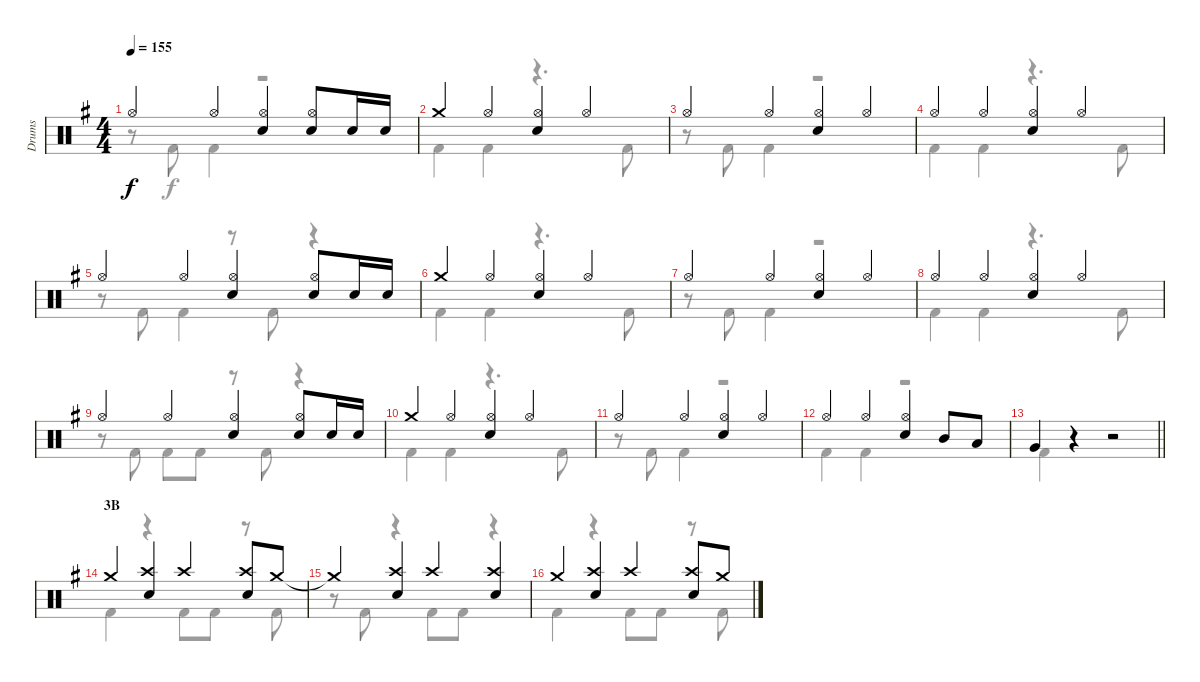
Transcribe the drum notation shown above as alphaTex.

\track ("Drums" "Drums") {instrument percussion}
\staff {score}
\articulation defaults
\voice
\ts (4 4)
\tempo 155
\clef neutral
\ks g "Hi-Hat (open)".4{dy f} "Hi-Hat (open)".4
("Hi-Hat (open)" "Electric Snare (hit)").4 ("Hi-Hat (open)" "Electric Snare (hit)").8 "Electric Snare (hit)".16 "Electric Snare (hit)".16 |
"Crash medium (hit)".4 "Hi-Hat (open)".4 ("Hi-Hat (open)" "Electric Snare (hit)").4 "Hi-Hat (open)".4 |
"Hi-Hat (open)".4 "Hi-Hat (open)".4 ("Hi-Hat (open)" "Electric Snare (hit)").4 "Hi-Hat (open)".4 |
"Hi-Hat (open)".4 "Hi-Hat (open)".4 ("Hi-Hat (open)" "Electric Snare (hit)").4 "Hi-Hat (open)".4 |
"Hi-Hat (open)".4 "Hi-Hat (open)".4 ("Hi-Hat (open)" "Electric Snare (hit)").4 ("Hi-Hat (open)" "Electric Snare (hit)").8 "Electric Snare (hit)".16 "Electric Snare (hit)".16 |
"Crash medium (hit)".4 "Hi-Hat (open)".4 ("Hi-Hat (open)" "Electric Snare (hit)").4 "Hi-Hat (open)".4 |
"Hi-Hat (open)".4 "Hi-Hat (open)".4 ("Hi-Hat (open)" "Electric Snare (hit)").4 "Hi-Hat (open)".4 |
"Hi-Hat (open)".4 "Hi-Hat (open)".4 ("Hi-Hat (open)" "Electric Snare (hit)").4 "Hi-Hat (open)".4 |
"Hi-Hat (open)".4 "Hi-Hat (open)".4 ("Hi-Hat (open)" "Electric Snare (hit)").4 ("Hi-Hat (open)" "Electric Snare (hit)").8 "Electric Snare (hit)".16 "Electric Snare (hit)".16 |
"Crash medium (hit)".4 "Hi-Hat (open)".4 ("Hi-Hat (open)" "Electric Snare (hit)").4 "Hi-Hat (open)".4 |
"Hi-Hat (open)".4 "Hi-Hat (open)".4 ("Hi-Hat (open)" "Electric Snare (hit)").4 "Hi-Hat (open)".4 |
"Hi-Hat (open)".4 "Hi-Hat (open)".4 ("Hi-Hat (open)" "Electric Snare (hit)").4 "Mid Tom (hit)".8 "Low Tom (hit)".8 |
\barLineRight lightlight "Very Low Tom (hit)".4
r.4 r.2 |
\section ("" "3B")
"Crash medium (hit)".4 ("Crash high (hit)" "Electric Snare (hit)").4 "Crash high (hit)".4 ("Crash high (hit)" "Electric Snare (hit)").8 "Crash medium (hit)".8 |
"Crash medium (hit)"{t}.4 ("Crash high (hit)" "Electric Snare (hit)").4 "Crash high (hit)".4 ("Crash high (hit)" "Electric Snare (hit)").4 |
"Crash medium (hit)".4 ("Crash high (hit)" "Electric Snare (hit)").4 "Crash high (hit)".4 ("Crash high (hit)" "Electric Snare (hit)").8 "Crash medium (hit)".8
\voice
\clef neutral
\ottava regular
\simile none
\ks g
r.8{dy f} "Kick (hit) 2".8 "Kick (hit) 2".4 r.2 |
"Kick (hit) 2".4 "Kick (hit) 2".4 r.4{d} "Kick (hit) 2".8 |
r.8 "Kick (hit) 2".8 "Kick (hit) 2".4 r.2 |
"Kick (hit) 2".4 "Kick (hit) 2".4 r.4{d} "Kick (hit) 2".8 |
r.8 "Kick (hit) 2".8 "Kick (hit) 2".4 r.8 "Kick (hit) 2".8 r.4 |
"Kick (hit) 2".4 "Kick (hit) 2".4 r.4{d} "Kick (hit) 2".8 |
r.8 "Kick (hit) 2".8 "Kick (hit) 2".4 r.2 |
"Kick (hit) 2".4 "Kick (hit) 2".4 r.4{d} "Kick (hit) 2".8 |
r.8 "Kick (hit) 2".8 "Kick (hit) 2".8 "Kick (hit) 2".8 r.8 "Kick (hit) 2".8 r.4 |
"Kick (hit) 2".4 "Kick (hit) 2".4 r.4{d} "Kick (hit) 2".8 |
r.8 "Kick (hit) 2".8 "Kick (hit) 2".4 r.2 |
"Kick (hit) 2".4 "Kick (hit) 2".4 r.2 |
\barLineRight lightlight "Kick (hit) 2".4
r.4 r.2 |
"Kick (hit) 2".4 r.4 "Kick (hit) 2".8 "Kick (hit) 2".8 r.8 "Kick (hit) 2".8 |
r.8 "Kick (hit) 2".8 r.4 "Kick (hit) 2".8 "Kick (hit) 2".8 r.4 |
"Kick (hit) 2".4 r.4 "Kick (hit) 2".8 "Kick (hit) 2".8 r.8 "Kick (hit) 2".8
